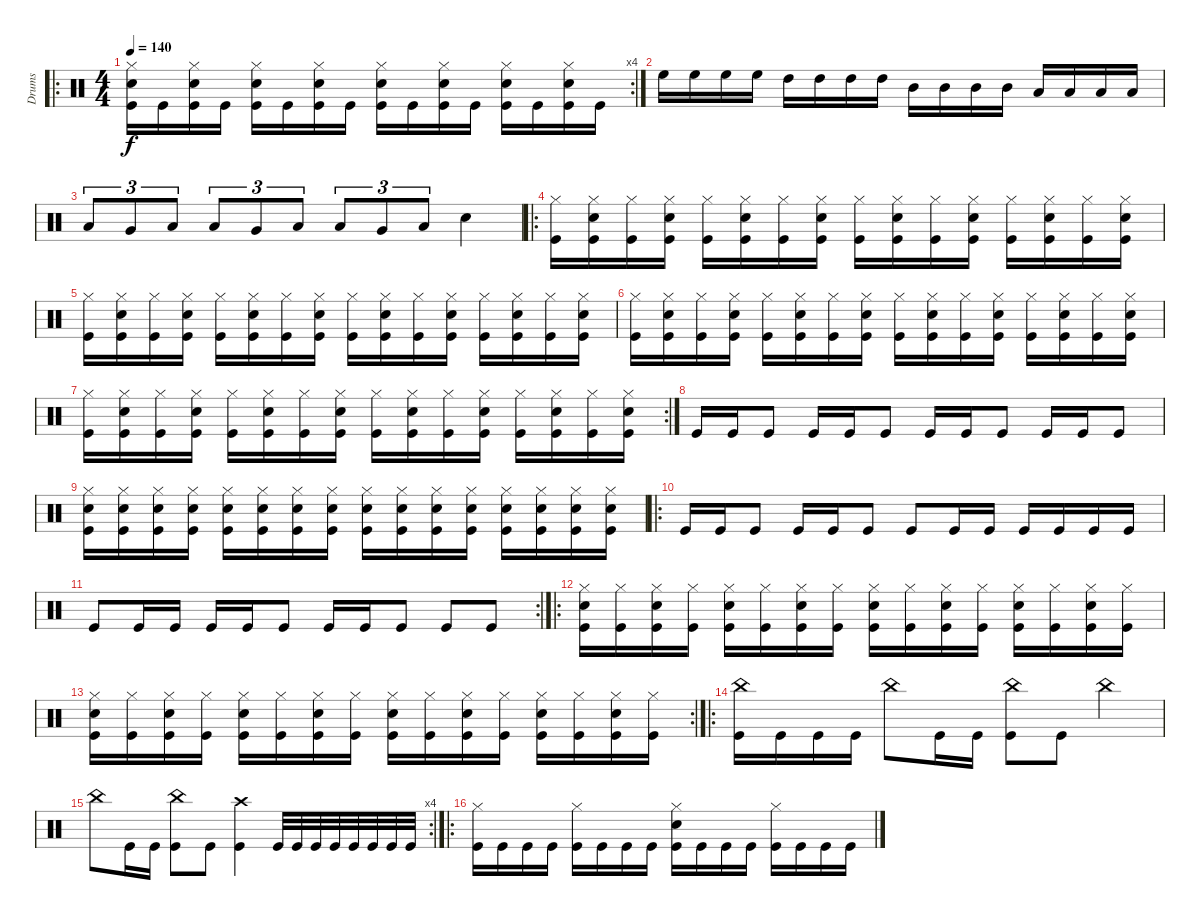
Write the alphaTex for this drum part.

\track ("Drums" "Drums") {instrument percussion}
\staff {score}
\articulation defaults
\ro
\rc 4
\ts (4 4)
\tempo 140
\clef neutral
\ks c
("Hi-Hat (closed)" "Snare (hit) 2" "Kick (hit)").16{dy f} "Kick (hit)".16 ("Hi-Hat (closed)" "Snare (hit) 2" "Kick (hit)").16 "Kick (hit)".16 ("Hi-Hat (closed)" "Snare (hit) 2" "Kick (hit)").16 "Kick (hit)".16 ("Hi-Hat (closed)" "Snare (hit) 2" "Kick (hit)").16 "Kick (hit)".16 ("Hi-Hat (closed)" "Snare (hit) 2" "Kick (hit)").16 "Kick (hit)".16 ("Hi-Hat (closed)" "Snare (hit) 2" "Kick (hit)").16 "Kick (hit)".16 ("Hi-Hat (closed)" "Snare (hit) 2" "Kick (hit)").16 "Kick (hit)".16 ("Hi-Hat (closed)" "Snare (hit) 2" "Kick (hit)").16 "Kick (hit)".16 |
"High Floor Tom (hit)".16 "High Floor Tom (hit)".16 "High Floor Tom (hit)".16 "High Floor Tom (hit)".16 "High Tom (hit)".16 "High Tom (hit)".16 "High Tom (hit)".16 "High Tom (hit)".16 "Mid Tom (hit)".16 "Mid Tom (hit)".16 "Mid Tom (hit)".16 "Mid Tom (hit)".16 "Low Tom (hit)".16 "Low Tom (hit)".16 "Low Tom (hit)".16 "Low Tom (hit)".16 |
"Low Tom (hit)".8{tu (3 2)} "Very Low Tom (hit)".8{tu (3 2)} "Low Floor Tom (hit)".8{tu (3 2)} "Low Tom (hit)".8{tu (3 2)} "Very Low Tom (hit)".8{tu (3 2)} "Low Floor Tom (hit)".8{tu (3 2)} "Low Tom (hit)".8{tu (3 2)} "Very Low Tom (hit)".8{tu (3 2)} "Low Floor Tom (hit)".8{tu (3 2)} "Snare (hit) 2".4 |
\ro
("Hi-Hat (closed)" "Kick (hit)").16 ("Hi-Hat (closed)" "Snare (hit) 2" "Kick (hit)").16 ("Hi-Hat (closed)" "Kick (hit)").16 ("Hi-Hat (closed)" "Snare (hit) 2" "Kick (hit)").16 ("Hi-Hat (closed)" "Kick (hit)").16 ("Hi-Hat (closed)" "Snare (hit) 2" "Kick (hit)").16 ("Hi-Hat (closed)" "Kick (hit)").16 ("Hi-Hat (closed)" "Snare (hit) 2" "Kick (hit)").16 ("Hi-Hat (closed)" "Kick (hit)").16 ("Hi-Hat (closed)" "Snare (hit) 2" "Kick (hit)").16 ("Hi-Hat (closed)" "Kick (hit)").16 ("Hi-Hat (closed)" "Snare (hit) 2" "Kick (hit)").16 ("Hi-Hat (closed)" "Kick (hit)").16 ("Hi-Hat (closed)" "Snare (hit) 2" "Kick (hit)").16 ("Hi-Hat (closed)" "Kick (hit)").16 ("Hi-Hat (closed)" "Snare (hit) 2" "Kick (hit)").16 |
("Hi-Hat (closed)" "Kick (hit)").16 ("Hi-Hat (closed)" "Snare (hit) 2" "Kick (hit)").16 ("Hi-Hat (closed)" "Kick (hit)").16 ("Hi-Hat (closed)" "Snare (hit) 2" "Kick (hit)").16 ("Hi-Hat (closed)" "Kick (hit)").16 ("Hi-Hat (closed)" "Snare (hit) 2" "Kick (hit)").16 ("Hi-Hat (closed)" "Kick (hit)").16 ("Hi-Hat (closed)" "Snare (hit) 2" "Kick (hit)").16 ("Hi-Hat (closed)" "Kick (hit)").16 ("Hi-Hat (closed)" "Snare (hit) 2" "Kick (hit)").16 ("Hi-Hat (closed)" "Kick (hit)").16 ("Hi-Hat (closed)" "Snare (hit) 2" "Kick (hit)").16 ("Hi-Hat (closed)" "Kick (hit)").16 ("Hi-Hat (closed)" "Snare (hit) 2" "Kick (hit)").16 ("Hi-Hat (closed)" "Kick (hit)").16 ("Hi-Hat (closed)" "Snare (hit) 2" "Kick (hit)").16 |
("Hi-Hat (closed)" "Kick (hit)").16 ("Hi-Hat (closed)" "Snare (hit) 2" "Kick (hit)").16 ("Hi-Hat (closed)" "Kick (hit)").16 ("Hi-Hat (closed)" "Snare (hit) 2" "Kick (hit)").16 ("Hi-Hat (closed)" "Kick (hit)").16 ("Hi-Hat (closed)" "Snare (hit) 2" "Kick (hit)").16 ("Hi-Hat (closed)" "Kick (hit)").16 ("Hi-Hat (closed)" "Snare (hit) 2" "Kick (hit)").16 ("Hi-Hat (closed)" "Kick (hit)").16 ("Hi-Hat (closed)" "Snare (hit) 2" "Kick (hit)").16 ("Hi-Hat (closed)" "Kick (hit)").16 ("Hi-Hat (closed)" "Snare (hit) 2" "Kick (hit)").16 ("Hi-Hat (closed)" "Kick (hit)").16 ("Hi-Hat (closed)" "Snare (hit) 2" "Kick (hit)").16 ("Hi-Hat (closed)" "Kick (hit)").16 ("Hi-Hat (closed)" "Snare (hit) 2" "Kick (hit)").16 |
\rc 2
("Hi-Hat (closed)" "Kick (hit)").16 ("Hi-Hat (closed)" "Snare (hit) 2" "Kick (hit)").16 ("Hi-Hat (closed)" "Kick (hit)").16 ("Hi-Hat (closed)" "Snare (hit) 2" "Kick (hit)").16 ("Hi-Hat (closed)" "Kick (hit)").16 ("Hi-Hat (closed)" "Snare (hit) 2" "Kick (hit)").16 ("Hi-Hat (closed)" "Kick (hit)").16 ("Hi-Hat (closed)" "Snare (hit) 2" "Kick (hit)").16 ("Hi-Hat (closed)" "Kick (hit)").16 ("Hi-Hat (closed)" "Snare (hit) 2" "Kick (hit)").16 ("Hi-Hat (closed)" "Kick (hit)").16 ("Hi-Hat (closed)" "Snare (hit) 2" "Kick (hit)").16 ("Hi-Hat (closed)" "Kick (hit)").16 ("Hi-Hat (closed)" "Snare (hit) 2" "Kick (hit)").16 ("Hi-Hat (closed)" "Kick (hit)").16 ("Hi-Hat (closed)" "Snare (hit) 2" "Kick (hit)").16 |
"Kick (hit)".16 "Kick (hit)".16 "Kick (hit)".8 "Kick (hit)".16 "Kick (hit)".16 "Kick (hit)".8 "Kick (hit)".16 "Kick (hit)".16 "Kick (hit)".8 "Kick (hit)".16 "Kick (hit)".16 "Kick (hit)".8 |
("Hi-Hat (closed)" "Snare (hit) 2" "Kick (hit)").16 ("Hi-Hat (closed)" "Snare (hit) 2" "Kick (hit)").16 ("Hi-Hat (closed)" "Snare (hit) 2" "Kick (hit)").16 ("Hi-Hat (closed)" "Snare (hit) 2" "Kick (hit)").16 ("Hi-Hat (closed)" "Snare (hit) 2" "Kick (hit)").16 ("Hi-Hat (closed)" "Snare (hit) 2" "Kick (hit)").16 ("Hi-Hat (closed)" "Snare (hit) 2" "Kick (hit)").16 ("Hi-Hat (closed)" "Snare (hit) 2" "Kick (hit)").16 ("Hi-Hat (closed)" "Snare (hit) 2" "Kick (hit)").16 ("Hi-Hat (closed)" "Snare (hit) 2" "Kick (hit)").16 ("Hi-Hat (closed)" "Snare (hit) 2" "Kick (hit)").16 ("Hi-Hat (closed)" "Snare (hit) 2" "Kick (hit)").16 ("Hi-Hat (closed)" "Snare (hit) 2" "Kick (hit)").16 ("Hi-Hat (closed)" "Snare (hit) 2" "Kick (hit)").16 ("Hi-Hat (closed)" "Snare (hit) 2" "Kick (hit)").16 ("Hi-Hat (closed)" "Snare (hit) 2" "Kick (hit)").16 |
\ro "Kick (hit)".16 "Kick (hit)".16 "Kick (hit)".8 "Kick (hit)".16 "Kick (hit)".16 "Kick (hit)".8 "Kick (hit)".8 "Kick (hit)".16 "Kick (hit)".16 "Kick (hit)".16 "Kick (hit)".16 "Kick (hit)".16 "Kick (hit)".16
|
\rc 2 "Kick (hit)".8 "Kick (hit)".16 "Kick (hit)".16 "Kick (hit)".16 "Kick (hit)".16 "Kick (hit)".8 "Kick (hit)".16 "Kick (hit)".16 "Kick (hit)".8 "Kick (hit)".8 "Kick (hit)".8
|
\ro
("Hi-Hat (closed)" "Snare (hit) 2" "Kick (hit)").16 ("Hi-Hat (closed)" "Kick (hit)").16 ("Hi-Hat (closed)" "Snare (hit) 2" "Kick (hit)").16 ("Hi-Hat (closed)" "Kick (hit)").16 ("Hi-Hat (closed)" "Snare (hit) 2" "Kick (hit)").16 ("Hi-Hat (closed)" "Kick (hit)").16 ("Hi-Hat (closed)" "Snare (hit) 2" "Kick (hit)").16 ("Hi-Hat (closed)" "Kick (hit)").16 ("Hi-Hat (closed)" "Snare (hit) 2" "Kick (hit)").16 ("Hi-Hat (closed)" "Kick (hit)").16 ("Hi-Hat (closed)" "Snare (hit) 2" "Kick (hit)").16 ("Hi-Hat (closed)" "Kick (hit)").16 ("Hi-Hat (closed)" "Snare (hit) 2" "Kick (hit)").16 ("Hi-Hat (closed)" "Kick (hit)").16 ("Hi-Hat (closed)" "Snare (hit) 2" "Kick (hit)").16 ("Hi-Hat (closed)" "Kick (hit)").16 |
\rc 2
("Hi-Hat (closed)" "Snare (hit) 2" "Kick (hit)").16 ("Hi-Hat (closed)" "Kick (hit)").16 ("Hi-Hat (closed)" "Snare (hit) 2" "Kick (hit)").16 ("Hi-Hat (closed)" "Kick (hit)").16 ("Hi-Hat (closed)" "Snare (hit) 2" "Kick (hit)").16 ("Hi-Hat (closed)" "Kick (hit)").16 ("Hi-Hat (closed)" "Snare (hit) 2" "Kick (hit)").16 ("Hi-Hat (closed)" "Kick (hit)").16 ("Hi-Hat (closed)" "Snare (hit) 2" "Kick (hit)").16 ("Hi-Hat (closed)" "Kick (hit)").16 ("Hi-Hat (closed)" "Snare (hit) 2" "Kick (hit)").16 ("Hi-Hat (closed)" "Kick (hit)").16 ("Hi-Hat (closed)" "Snare (hit) 2" "Kick (hit)").16 ("Hi-Hat (closed)" "Kick (hit)").16 ("Hi-Hat (closed)" "Snare (hit) 2" "Kick (hit)").16 ("Hi-Hat (closed)" "Kick (hit)").16 |
\ro
("China (hit)" "Kick (hit)").16 "Kick (hit)".16 "Kick (hit)".16 "Kick (hit)".16 "China (hit)".8 "Kick (hit)".16 "Kick (hit)".16 ("China (hit)" "Kick (hit)").8 "Kick (hit)".8 "China (hit)".4 |
\rc 4 "China (hit)".8 "Kick (hit)".16 "Kick (hit)".16
("China (hit)" "Kick (hit)").8 "Kick (hit)".8 ("Crash high (hit)" "Kick (hit)").4 "Kick (hit)".32 "Kick (hit)".32 "Kick (hit)".32 "Kick (hit)".32 "Kick (hit)".32 "Kick (hit)".32 "Kick (hit)".32 "Kick (hit)".32 |
\ro
("Hi-Hat (closed)" "Kick (hit)").16 "Kick (hit)".16 "Kick (hit)".16 "Kick (hit)".16 ("Hi-Hat (closed)" "Kick (hit)").16 "Kick (hit)".16 "Kick (hit)".16 "Kick (hit)".16 ("Hi-Hat (closed)" "Snare (hit) 2" "Kick (hit)").16 "Kick (hit)".16 "Kick (hit)".16 "Kick (hit)".16 ("Hi-Hat (closed)" "Kick (hit)").16 "Kick (hit)".16 "Kick (hit)".16 "Kick (hit)".16
